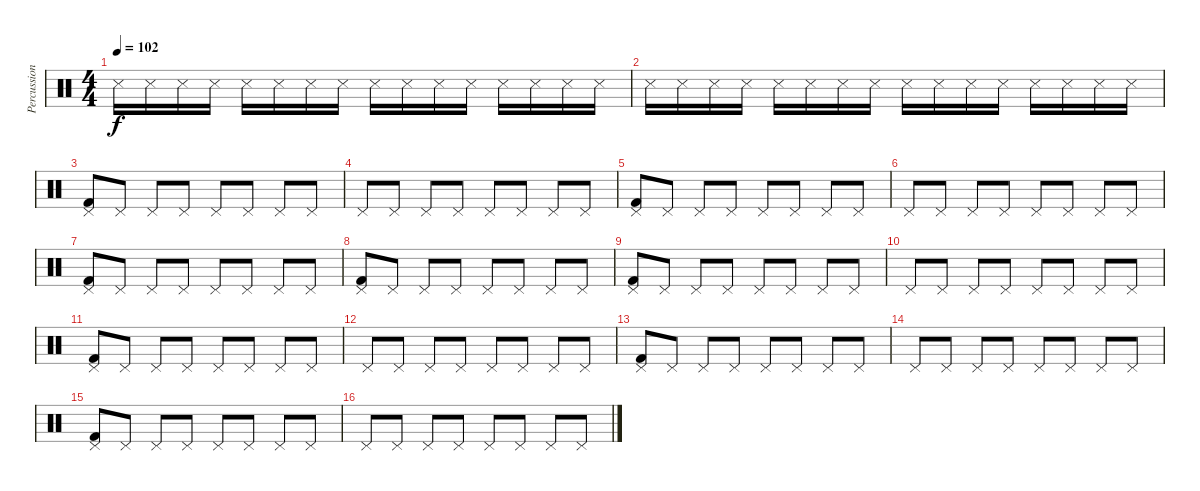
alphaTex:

\track ("Percussion" "Percussion") {instrument percussion}
\staff {score}
\articulation defaults
\ts (4 4)
\tempo 102
\clef neutral
\ks c "Snare (side stick) 3".16{dy f} "Snare (side stick) 3".16 "Snare (side stick) 3".16 "Snare (side stick) 3".16 "Snare (side stick) 3".16 "Snare (side stick) 3".16 "Snare (side stick) 3".16 "Snare (side stick) 3".16 "Snare (side stick) 3".16 "Snare (side stick) 3".16 "Snare (side stick) 3".16 "Snare (side stick) 3".16 "Snare (side stick) 3".16 "Snare (side stick) 3".16 "Snare (side stick) 3".16 "Snare (side stick) 3".16
|
"Snare (side stick) 3".16 "Snare (side stick) 3".16 "Snare (side stick) 3".16 "Snare (side stick) 3".16 "Snare (side stick) 3".16 "Snare (side stick) 3".16 "Snare (side stick) 3".16 "Snare (side stick) 3".16 "Snare (side stick) 3".16 "Snare (side stick) 3".16 "Snare (side stick) 3".16 "Snare (side stick) 3".16 "Snare (side stick) 3".16 "Snare (side stick) 3".16 "Snare (side stick) 3".16 "Snare (side stick) 3".16 |
("Pedal Hi-Hat (hit)" "Kick (hit) 2").8 "Pedal Hi-Hat (hit)".8 "Pedal Hi-Hat (hit)".8 "Pedal Hi-Hat (hit)".8 "Pedal Hi-Hat (hit)".8 "Pedal Hi-Hat (hit)".8 "Pedal Hi-Hat (hit)".8 "Pedal Hi-Hat (hit)".8 |
"Pedal Hi-Hat (hit)".8 "Pedal Hi-Hat (hit)".8 "Pedal Hi-Hat (hit)".8 "Pedal Hi-Hat (hit)".8 "Pedal Hi-Hat (hit)".8 "Pedal Hi-Hat (hit)".8 "Pedal Hi-Hat (hit)".8 "Pedal Hi-Hat (hit)".8 |
("Pedal Hi-Hat (hit)" "Kick (hit) 2").8 "Pedal Hi-Hat (hit)".8 "Pedal Hi-Hat (hit)".8 "Pedal Hi-Hat (hit)".8 "Pedal Hi-Hat (hit)".8 "Pedal Hi-Hat (hit)".8 "Pedal Hi-Hat (hit)".8 "Pedal Hi-Hat (hit)".8 |
"Pedal Hi-Hat (hit)".8 "Pedal Hi-Hat (hit)".8 "Pedal Hi-Hat (hit)".8 "Pedal Hi-Hat (hit)".8 "Pedal Hi-Hat (hit)".8 "Pedal Hi-Hat (hit)".8 "Pedal Hi-Hat (hit)".8 "Pedal Hi-Hat (hit)".8 |
("Pedal Hi-Hat (hit)" "Kick (hit) 2").8 "Pedal Hi-Hat (hit)".8 "Pedal Hi-Hat (hit)".8 "Pedal Hi-Hat (hit)".8 "Pedal Hi-Hat (hit)".8 "Pedal Hi-Hat (hit)".8 "Pedal Hi-Hat (hit)".8 "Pedal Hi-Hat (hit)".8 |
("Pedal Hi-Hat (hit)" "Kick (hit) 2").8 "Pedal Hi-Hat (hit)".8 "Pedal Hi-Hat (hit)".8 "Pedal Hi-Hat (hit)".8 "Pedal Hi-Hat (hit)".8 "Pedal Hi-Hat (hit)".8 "Pedal Hi-Hat (hit)".8 "Pedal Hi-Hat (hit)".8 |
("Pedal Hi-Hat (hit)" "Kick (hit) 2").8 "Pedal Hi-Hat (hit)".8 "Pedal Hi-Hat (hit)".8 "Pedal Hi-Hat (hit)".8 "Pedal Hi-Hat (hit)".8 "Pedal Hi-Hat (hit)".8 "Pedal Hi-Hat (hit)".8 "Pedal Hi-Hat (hit)".8 |
"Pedal Hi-Hat (hit)".8 "Pedal Hi-Hat (hit)".8 "Pedal Hi-Hat (hit)".8 "Pedal Hi-Hat (hit)".8 "Pedal Hi-Hat (hit)".8 "Pedal Hi-Hat (hit)".8 "Pedal Hi-Hat (hit)".8 "Pedal Hi-Hat (hit)".8 |
("Pedal Hi-Hat (hit)" "Kick (hit) 2").8 "Pedal Hi-Hat (hit)".8 "Pedal Hi-Hat (hit)".8 "Pedal Hi-Hat (hit)".8 "Pedal Hi-Hat (hit)".8 "Pedal Hi-Hat (hit)".8 "Pedal Hi-Hat (hit)".8 "Pedal Hi-Hat (hit)".8 |
"Pedal Hi-Hat (hit)".8 "Pedal Hi-Hat (hit)".8 "Pedal Hi-Hat (hit)".8 "Pedal Hi-Hat (hit)".8 "Pedal Hi-Hat (hit)".8 "Pedal Hi-Hat (hit)".8 "Pedal Hi-Hat (hit)".8 "Pedal Hi-Hat (hit)".8 |
("Pedal Hi-Hat (hit)" "Kick (hit) 2").8 "Pedal Hi-Hat (hit)".8 "Pedal Hi-Hat (hit)".8 "Pedal Hi-Hat (hit)".8 "Pedal Hi-Hat (hit)".8 "Pedal Hi-Hat (hit)".8 "Pedal Hi-Hat (hit)".8 "Pedal Hi-Hat (hit)".8 |
"Pedal Hi-Hat (hit)".8 "Pedal Hi-Hat (hit)".8 "Pedal Hi-Hat (hit)".8 "Pedal Hi-Hat (hit)".8 "Pedal Hi-Hat (hit)".8 "Pedal Hi-Hat (hit)".8 "Pedal Hi-Hat (hit)".8 "Pedal Hi-Hat (hit)".8 |
("Pedal Hi-Hat (hit)" "Kick (hit) 2").8 "Pedal Hi-Hat (hit)".8 "Pedal Hi-Hat (hit)".8 "Pedal Hi-Hat (hit)".8 "Pedal Hi-Hat (hit)".8 "Pedal Hi-Hat (hit)".8 "Pedal Hi-Hat (hit)".8 "Pedal Hi-Hat (hit)".8 |
"Pedal Hi-Hat (hit)".8 "Pedal Hi-Hat (hit)".8 "Pedal Hi-Hat (hit)".8 "Pedal Hi-Hat (hit)".8 "Pedal Hi-Hat (hit)".8 "Pedal Hi-Hat (hit)".8 "Pedal Hi-Hat (hit)".8 "Pedal Hi-Hat (hit)".8
